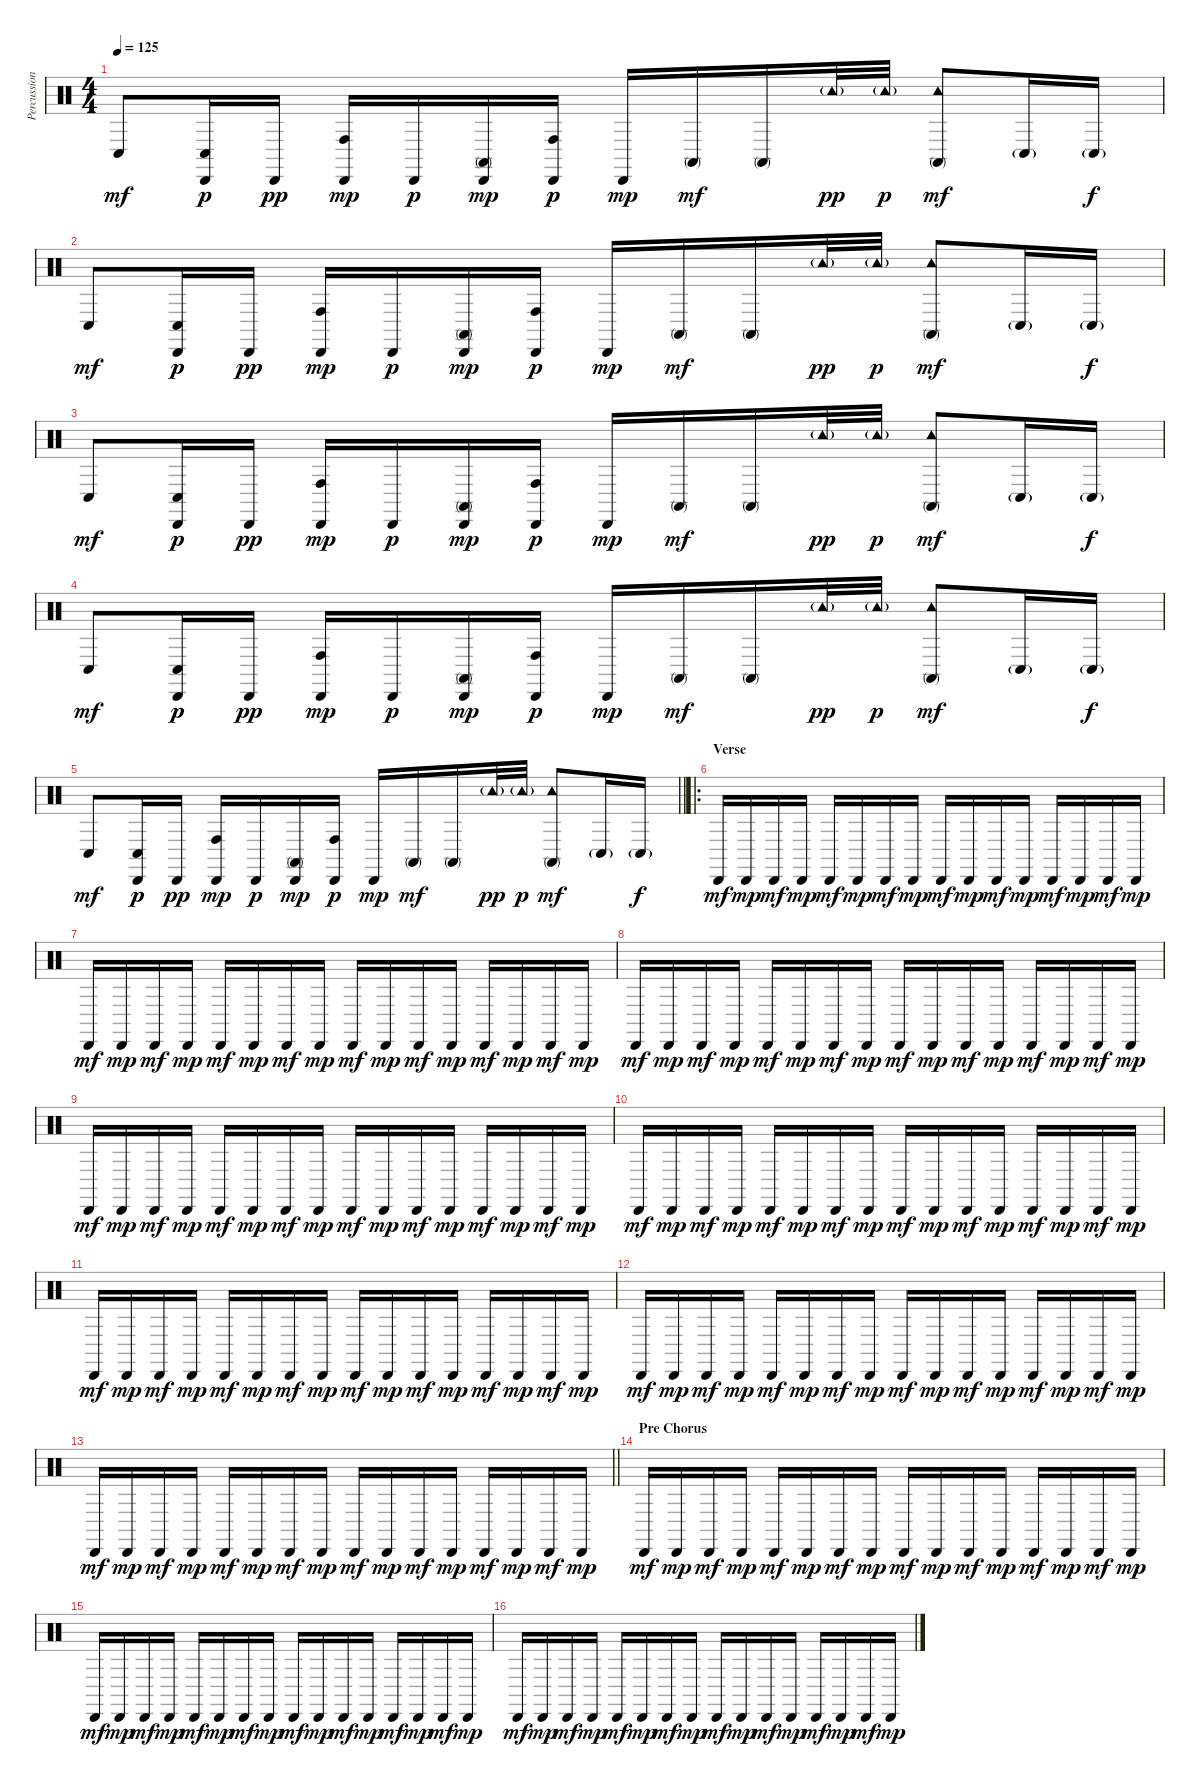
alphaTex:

\track ("Percussion" "Percussion") {instrument percussion}
\staff {score}
\articulation defaults
\ts (4 4)
\tempo 125
\clef neutral
\ks c "Conga low (hit)".8{dy mf}
("Conga low (hit)" "Cabasa (hit)").16{dy p} "Cabasa (hit)".16{dy pp} ("Conga high (hit)" "Cabasa (hit)").16{dy mp} "Cabasa (hit)".16{dy p} ("Conga high (mute)" "Cabasa (hit)").16{dy mp} ("Conga high (hit)" "Cabasa (hit)").16{dy p} "Cabasa (hit)".16{dy mp} "Conga high (mute)".16{dy mf} "Conga high (mute)".16 "Tambourine (hit)"{g}.32{dy pp} "Tambourine (hit)"{g}.32{dy p} ("Conga high (mute)" "Tambourine (hit)").8{dy mf} "Conga low (hit)"{g}.16 "Conga low (hit)"{g}.16{dy f} |
"Conga low (hit)".8{dy mf} ("Conga low (hit)" "Cabasa (hit)").16{dy p} "Cabasa (hit)".16{dy pp} ("Conga high (hit)" "Cabasa (hit)").16{dy mp} "Cabasa (hit)".16{dy p} ("Conga high (mute)" "Cabasa (hit)").16{dy mp} ("Conga high (hit)" "Cabasa (hit)").16{dy p} "Cabasa (hit)".16{dy mp} "Conga high (mute)".16{dy mf} "Conga high (mute)".16 "Tambourine (hit)"{g}.32{dy pp} "Tambourine (hit)"{g}.32{dy p} ("Conga high (mute)" "Tambourine (hit)").8{dy mf} "Conga low (hit)"{g}.16 "Conga low (hit)"{g}.16{dy f} |
"Conga low (hit)".8{dy mf} ("Conga low (hit)" "Cabasa (hit)").16{dy p} "Cabasa (hit)".16{dy pp} ("Conga high (hit)" "Cabasa (hit)").16{dy mp} "Cabasa (hit)".16{dy p} ("Conga high (mute)" "Cabasa (hit)").16{dy mp} ("Conga high (hit)" "Cabasa (hit)").16{dy p} "Cabasa (hit)".16{dy mp} "Conga high (mute)".16{dy mf} "Conga high (mute)".16 "Tambourine (hit)"{g}.32{dy pp} "Tambourine (hit)"{g}.32{dy p} ("Conga high (mute)" "Tambourine (hit)").8{dy mf} "Conga low (hit)"{g}.16 "Conga low (hit)"{g}.16{dy f} |
"Conga low (hit)".8{dy mf} ("Conga low (hit)" "Cabasa (hit)").16{dy p} "Cabasa (hit)".16{dy pp} ("Conga high (hit)" "Cabasa (hit)").16{dy mp} "Cabasa (hit)".16{dy p} ("Conga high (mute)" "Cabasa (hit)").16{dy mp} ("Conga high (hit)" "Cabasa (hit)").16{dy p} "Cabasa (hit)".16{dy mp} "Conga high (mute)".16{dy mf} "Conga high (mute)".16 "Tambourine (hit)"{g}.32{dy pp} "Tambourine (hit)"{g}.32{dy p} ("Conga high (mute)" "Tambourine (hit)").8{dy mf} "Conga low (hit)"{g}.16 "Conga low (hit)"{g}.16{dy f} |
\barLineRight lightlight "Conga low (hit)".8{dy mf}
("Conga low (hit)" "Cabasa (hit)").16{dy p} "Cabasa (hit)".16{dy pp} ("Conga high (hit)" "Cabasa (hit)").16{dy mp} "Cabasa (hit)".16{dy p} ("Conga high (mute)" "Cabasa (hit)").16{dy mp} ("Conga high (hit)" "Cabasa (hit)").16{dy p} "Cabasa (hit)".16{dy mp} "Conga high (mute)".16{dy mf} "Conga high (mute)".16 "Tambourine (hit)"{g}.32{dy pp} "Tambourine (hit)"{g}.32{dy p} ("Conga high (mute)" "Tambourine (hit)").8{dy mf} "Conga low (hit)"{g}.16 "Conga low (hit)"{g}.16{dy f} |
\ro
\section ("" "Verse")
"Cabasa (hit)".16{dy mf} "Cabasa (hit)".16{dy mp} "Cabasa (hit)".16{dy mf} "Cabasa (hit)".16{dy mp} "Cabasa (hit)".16{dy mf} "Cabasa (hit)".16{dy mp} "Cabasa (hit)".16{dy mf} "Cabasa (hit)".16{dy mp} "Cabasa (hit)".16{dy mf} "Cabasa (hit)".16{dy mp} "Cabasa (hit)".16{dy mf} "Cabasa (hit)".16{dy mp} "Cabasa (hit)".16{dy mf} "Cabasa (hit)".16{dy mp} "Cabasa (hit)".16{dy mf} "Cabasa (hit)".16{dy mp} |
"Cabasa (hit)".16{dy mf} "Cabasa (hit)".16{dy mp} "Cabasa (hit)".16{dy mf} "Cabasa (hit)".16{dy mp} "Cabasa (hit)".16{dy mf} "Cabasa (hit)".16{dy mp} "Cabasa (hit)".16{dy mf} "Cabasa (hit)".16{dy mp} "Cabasa (hit)".16{dy mf} "Cabasa (hit)".16{dy mp} "Cabasa (hit)".16{dy mf} "Cabasa (hit)".16{dy mp} "Cabasa (hit)".16{dy mf} "Cabasa (hit)".16{dy mp} "Cabasa (hit)".16{dy mf} "Cabasa (hit)".16{dy mp} |
"Cabasa (hit)".16{dy mf} "Cabasa (hit)".16{dy mp} "Cabasa (hit)".16{dy mf} "Cabasa (hit)".16{dy mp} "Cabasa (hit)".16{dy mf} "Cabasa (hit)".16{dy mp} "Cabasa (hit)".16{dy mf} "Cabasa (hit)".16{dy mp} "Cabasa (hit)".16{dy mf} "Cabasa (hit)".16{dy mp} "Cabasa (hit)".16{dy mf} "Cabasa (hit)".16{dy mp} "Cabasa (hit)".16{dy mf} "Cabasa (hit)".16{dy mp} "Cabasa (hit)".16{dy mf} "Cabasa (hit)".16{dy mp} |
"Cabasa (hit)".16{dy mf} "Cabasa (hit)".16{dy mp} "Cabasa (hit)".16{dy mf} "Cabasa (hit)".16{dy mp} "Cabasa (hit)".16{dy mf} "Cabasa (hit)".16{dy mp} "Cabasa (hit)".16{dy mf} "Cabasa (hit)".16{dy mp} "Cabasa (hit)".16{dy mf} "Cabasa (hit)".16{dy mp} "Cabasa (hit)".16{dy mf} "Cabasa (hit)".16{dy mp} "Cabasa (hit)".16{dy mf} "Cabasa (hit)".16{dy mp} "Cabasa (hit)".16{dy mf} "Cabasa (hit)".16{dy mp} |
"Cabasa (hit)".16{dy mf} "Cabasa (hit)".16{dy mp} "Cabasa (hit)".16{dy mf} "Cabasa (hit)".16{dy mp} "Cabasa (hit)".16{dy mf} "Cabasa (hit)".16{dy mp} "Cabasa (hit)".16{dy mf} "Cabasa (hit)".16{dy mp} "Cabasa (hit)".16{dy mf} "Cabasa (hit)".16{dy mp} "Cabasa (hit)".16{dy mf} "Cabasa (hit)".16{dy mp} "Cabasa (hit)".16{dy mf} "Cabasa (hit)".16{dy mp} "Cabasa (hit)".16{dy mf} "Cabasa (hit)".16{dy mp} |
"Cabasa (hit)".16{dy mf} "Cabasa (hit)".16{dy mp} "Cabasa (hit)".16{dy mf} "Cabasa (hit)".16{dy mp} "Cabasa (hit)".16{dy mf} "Cabasa (hit)".16{dy mp} "Cabasa (hit)".16{dy mf} "Cabasa (hit)".16{dy mp} "Cabasa (hit)".16{dy mf} "Cabasa (hit)".16{dy mp} "Cabasa (hit)".16{dy mf} "Cabasa (hit)".16{dy mp} "Cabasa (hit)".16{dy mf} "Cabasa (hit)".16{dy mp} "Cabasa (hit)".16{dy mf} "Cabasa (hit)".16{dy mp} |
"Cabasa (hit)".16{dy mf} "Cabasa (hit)".16{dy mp} "Cabasa (hit)".16{dy mf} "Cabasa (hit)".16{dy mp} "Cabasa (hit)".16{dy mf} "Cabasa (hit)".16{dy mp} "Cabasa (hit)".16{dy mf} "Cabasa (hit)".16{dy mp} "Cabasa (hit)".16{dy mf} "Cabasa (hit)".16{dy mp} "Cabasa (hit)".16{dy mf} "Cabasa (hit)".16{dy mp} "Cabasa (hit)".16{dy mf} "Cabasa (hit)".16{dy mp} "Cabasa (hit)".16{dy mf} "Cabasa (hit)".16{dy mp} |
\barLineRight lightlight "Cabasa (hit)".16{dy mf} "Cabasa (hit)".16{dy mp} "Cabasa (hit)".16{dy mf} "Cabasa (hit)".16{dy mp} "Cabasa (hit)".16{dy mf} "Cabasa (hit)".16{dy mp} "Cabasa (hit)".16{dy mf} "Cabasa (hit)".16{dy mp} "Cabasa (hit)".16{dy mf} "Cabasa (hit)".16{dy mp} "Cabasa (hit)".16{dy mf} "Cabasa (hit)".16{dy mp} "Cabasa (hit)".16{dy mf} "Cabasa (hit)".16{dy mp} "Cabasa (hit)".16{dy mf} "Cabasa (hit)".16{dy mp}
|
\section ("" "Pre Chorus")
"Cabasa (hit)".16{dy mf} "Cabasa (hit)".16{dy mp} "Cabasa (hit)".16{dy mf} "Cabasa (hit)".16{dy mp} "Cabasa (hit)".16{dy mf} "Cabasa (hit)".16{dy mp} "Cabasa (hit)".16{dy mf} "Cabasa (hit)".16{dy mp} "Cabasa (hit)".16{dy mf} "Cabasa (hit)".16{dy mp} "Cabasa (hit)".16{dy mf} "Cabasa (hit)".16{dy mp} "Cabasa (hit)".16{dy mf} "Cabasa (hit)".16{dy mp} "Cabasa (hit)".16{dy mf} "Cabasa (hit)".16{dy mp} |
"Cabasa (hit)".16{dy mf} "Cabasa (hit)".16{dy mp} "Cabasa (hit)".16{dy mf} "Cabasa (hit)".16{dy mp} "Cabasa (hit)".16{dy mf} "Cabasa (hit)".16{dy mp} "Cabasa (hit)".16{dy mf} "Cabasa (hit)".16{dy mp} "Cabasa (hit)".16{dy mf} "Cabasa (hit)".16{dy mp} "Cabasa (hit)".16{dy mf} "Cabasa (hit)".16{dy mp} "Cabasa (hit)".16{dy mf} "Cabasa (hit)".16{dy mp} "Cabasa (hit)".16{dy mf} "Cabasa (hit)".16{dy mp} |
"Cabasa (hit)".16{dy mf} "Cabasa (hit)".16{dy mp} "Cabasa (hit)".16{dy mf} "Cabasa (hit)".16{dy mp} "Cabasa (hit)".16{dy mf} "Cabasa (hit)".16{dy mp} "Cabasa (hit)".16{dy mf} "Cabasa (hit)".16{dy mp} "Cabasa (hit)".16{dy mf} "Cabasa (hit)".16{dy mp} "Cabasa (hit)".16{dy mf} "Cabasa (hit)".16{dy mp} "Cabasa (hit)".16{dy mf} "Cabasa (hit)".16{dy mp} "Cabasa (hit)".16{dy mf} "Cabasa (hit)".16{dy mp}
